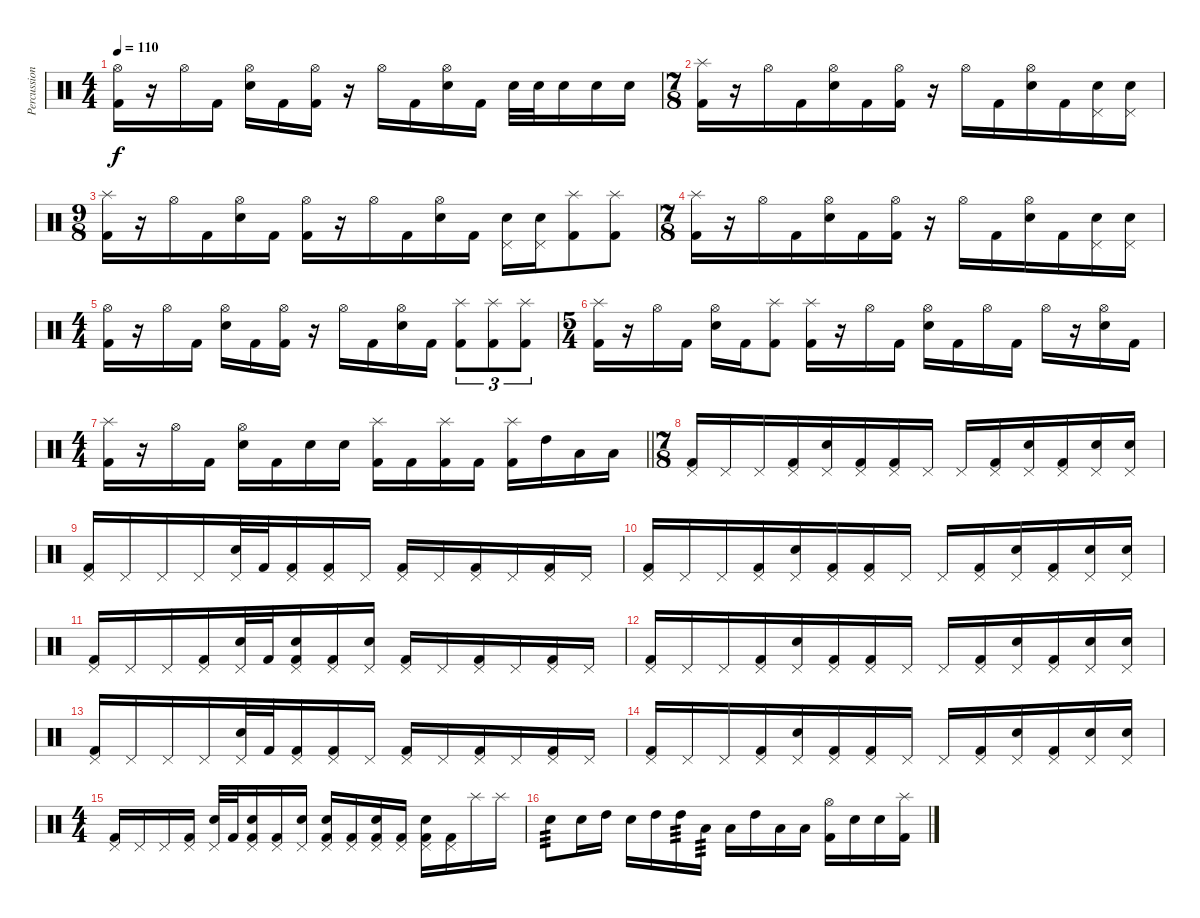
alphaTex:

\track ("Percussion" "Percussion") {instrument percussion}
\staff {score}
\articulation defaults
\ts (4 4)
\tempo 110
\clef neutral
\ks c
("Hi-Hat (open)" "Kick (hit) 2").16{dy f} r.16 "Hi-Hat (open)".16 "Kick (hit) 2".16 ("Hi-Hat (open)" "Electric Snare (hit)").16 "Kick (hit) 2".16 ("Hi-Hat (open)" "Kick (hit) 2").16 r.16 "Hi-Hat (open)".16 "Kick (hit) 2".16 ("Hi-Hat (open)" "Electric Snare (hit)").16 "Kick (hit) 2".16 "Electric Snare (hit)".32 "Electric Snare (hit)".32 "Electric Snare (hit)".16 "Electric Snare (hit)".16 "Electric Snare (hit)".16 |
\ts (7 8)
("Splash (hit)" "Kick (hit) 2").16 r.16 "Hi-Hat (open)".16 "Kick (hit) 2".16 ("Hi-Hat (open)" "Electric Snare (hit)").16 "Kick (hit) 2".16 ("Hi-Hat (open)" "Kick (hit) 2").16 r.16 "Hi-Hat (open)".16 "Kick (hit) 2".16 ("Hi-Hat (open)" "Electric Snare (hit)").16 "Kick (hit) 2".16 ("Pedal Hi-Hat (hit)" "Electric Snare (hit)").16 ("Pedal Hi-Hat (hit)" "Electric Snare (hit)").16 |
\ts (9 8)
("Splash (hit)" "Kick (hit) 2").16 r.16 "Hi-Hat (open)".16 "Kick (hit) 2".16 ("Hi-Hat (open)" "Electric Snare (hit)").16 "Kick (hit) 2".16 ("Hi-Hat (open)" "Kick (hit) 2").16 r.16 "Hi-Hat (open)".16 "Kick (hit) 2".16 ("Hi-Hat (open)" "Electric Snare (hit)").16 "Kick (hit) 2".16 ("Pedal Hi-Hat (hit)" "Electric Snare (hit)").16 ("Pedal Hi-Hat (hit)" "Electric Snare (hit)").16 ("Splash (hit)" "Kick (hit) 2").8 ("Splash (hit)" "Kick (hit) 2").8 |
\ts (7 8)
("Splash (hit)" "Kick (hit) 2").16 r.16 "Hi-Hat (open)".16 "Kick (hit) 2".16 ("Hi-Hat (open)" "Electric Snare (hit)").16 "Kick (hit) 2".16 ("Hi-Hat (open)" "Kick (hit) 2").16 r.16 "Hi-Hat (open)".16 "Kick (hit) 2".16 ("Hi-Hat (open)" "Electric Snare (hit)").16 "Kick (hit) 2".16 ("Pedal Hi-Hat (hit)" "Electric Snare (hit)").16 ("Pedal Hi-Hat (hit)" "Electric Snare (hit)").16 |
\ts (4 4)
("Hi-Hat (open)" "Kick (hit) 2").16 r.16 "Hi-Hat (open)".16 "Kick (hit) 2".16 ("Hi-Hat (open)" "Electric Snare (hit)").16 "Kick (hit) 2".16 ("Hi-Hat (open)" "Kick (hit) 2").16 r.16 "Hi-Hat (open)".16 "Kick (hit) 2".16 ("Hi-Hat (open)" "Electric Snare (hit)").16 "Kick (hit) 2".16 ("Splash (hit)" "Kick (hit) 2").8{tu (3 2)} ("Splash (hit)" "Kick (hit) 2").8{tu (3 2)} ("Splash (hit)" "Kick (hit) 2").8{tu (3 2)} |
\ts (5 4)
("Splash (hit)" "Kick (hit) 2").16 r.16 "Hi-Hat (open)".16 "Kick (hit) 2".16 ("Hi-Hat (open)" "Electric Snare (hit)").16 "Kick (hit) 2".16 ("Splash (hit)" "Kick (hit) 2").8 ("Splash (hit)" "Kick (hit) 2").16 r.16 "Hi-Hat (open)".16 "Kick (hit) 2".16 ("Hi-Hat (open)" "Electric Snare (hit)").16 "Kick (hit) 2".16 "Hi-Hat (open)".16 "Kick (hit) 2".16 "Hi-Hat (open)".16 r.16 ("Hi-Hat (open)" "Electric Snare (hit)").16 "Kick (hit) 2".16 |
\ts (4 4)
\barLineRight lightlight
("Splash (hit)" "Kick (hit) 2").16 r.16 "Hi-Hat (open)".16 "Kick (hit) 2".16 ("Hi-Hat (open)" "Electric Snare (hit)").16 "Kick (hit) 2".16 "Electric Snare (hit)".16 "Electric Snare (hit)".16 ("Splash (hit)" "Kick (hit) 2").16 "Kick (hit) 2".16 ("Splash (hit)" "Kick (hit) 2").16 "Kick (hit) 2".16 ("Splash (hit)" "Kick (hit) 2").16 "High Tom (hit)".16 "Low Tom (hit)".16 "Low Floor Tom (hit)".16 |
\ts (7 8)
("Pedal Hi-Hat (hit)" "Kick (hit) 2").16 "Pedal Hi-Hat (hit)".16 "Pedal Hi-Hat (hit)".16 ("Pedal Hi-Hat (hit)" "Kick (hit) 2").16 ("Pedal Hi-Hat (hit)" "Electric Snare (hit)").16 ("Pedal Hi-Hat (hit)" "Kick (hit) 2").16 ("Pedal Hi-Hat (hit)" "Kick (hit) 2").16 "Pedal Hi-Hat (hit)".16 "Pedal Hi-Hat (hit)".16 ("Pedal Hi-Hat (hit)" "Kick (hit) 2").16 ("Pedal Hi-Hat (hit)" "Electric Snare (hit)").16 ("Pedal Hi-Hat (hit)" "Kick (hit) 2").16 ("Pedal Hi-Hat (hit)" "Electric Snare (hit)").16 ("Pedal Hi-Hat (hit)" "Electric Snare (hit)").16 |
("Pedal Hi-Hat (hit)" "Kick (hit) 2").16 "Pedal Hi-Hat (hit)".16 "Pedal Hi-Hat (hit)".16 "Pedal Hi-Hat (hit)".16 ("Pedal Hi-Hat (hit)" "Electric Snare (hit)").32 "Kick (hit) 2".32 ("Pedal Hi-Hat (hit)" "Kick (hit) 2").16 ("Pedal Hi-Hat (hit)" "Kick (hit) 2").16 "Pedal Hi-Hat (hit)".16 ("Pedal Hi-Hat (hit)" "Kick (hit) 2").16 "Pedal Hi-Hat (hit)".16 ("Pedal Hi-Hat (hit)" "Kick (hit) 2").16 "Pedal Hi-Hat (hit)".16 ("Pedal Hi-Hat (hit)" "Kick (hit) 2").16 "Pedal Hi-Hat (hit)".16 |
("Pedal Hi-Hat (hit)" "Kick (hit) 2").16 "Pedal Hi-Hat (hit)".16 "Pedal Hi-Hat (hit)".16 ("Pedal Hi-Hat (hit)" "Kick (hit) 2").16 ("Pedal Hi-Hat (hit)" "Electric Snare (hit)").16 ("Pedal Hi-Hat (hit)" "Kick (hit) 2").16 ("Pedal Hi-Hat (hit)" "Kick (hit) 2").16 "Pedal Hi-Hat (hit)".16 "Pedal Hi-Hat (hit)".16 ("Pedal Hi-Hat (hit)" "Kick (hit) 2").16 ("Pedal Hi-Hat (hit)" "Electric Snare (hit)").16 ("Pedal Hi-Hat (hit)" "Kick (hit) 2").16 ("Pedal Hi-Hat (hit)" "Electric Snare (hit)").16 ("Pedal Hi-Hat (hit)" "Electric Snare (hit)").16 |
("Pedal Hi-Hat (hit)" "Kick (hit) 2").16 "Pedal Hi-Hat (hit)".16 "Pedal Hi-Hat (hit)".16 ("Pedal Hi-Hat (hit)" "Kick (hit) 2").16 ("Pedal Hi-Hat (hit)" "Electric Snare (hit)").32 "Kick (hit) 2".32 ("Pedal Hi-Hat (hit)" "Electric Snare (hit)" "Kick (hit) 2").16 ("Pedal Hi-Hat (hit)" "Kick (hit) 2").16 ("Pedal Hi-Hat (hit)" "Electric Snare (hit)").16 ("Pedal Hi-Hat (hit)" "Kick (hit) 2").16 "Pedal Hi-Hat (hit)".16 ("Pedal Hi-Hat (hit)" "Kick (hit) 2").16 "Pedal Hi-Hat (hit)".16 ("Pedal Hi-Hat (hit)" "Kick (hit) 2").16 "Pedal Hi-Hat (hit)".16 |
("Pedal Hi-Hat (hit)" "Kick (hit) 2").16 "Pedal Hi-Hat (hit)".16 "Pedal Hi-Hat (hit)".16 ("Pedal Hi-Hat (hit)" "Kick (hit) 2").16 ("Pedal Hi-Hat (hit)" "Electric Snare (hit)").16 ("Pedal Hi-Hat (hit)" "Kick (hit) 2").16 ("Pedal Hi-Hat (hit)" "Kick (hit) 2").16 "Pedal Hi-Hat (hit)".16 "Pedal Hi-Hat (hit)".16 ("Pedal Hi-Hat (hit)" "Kick (hit) 2").16 ("Pedal Hi-Hat (hit)" "Electric Snare (hit)").16 ("Pedal Hi-Hat (hit)" "Kick (hit) 2").16 ("Pedal Hi-Hat (hit)" "Electric Snare (hit)").16 ("Pedal Hi-Hat (hit)" "Electric Snare (hit)").16 |
("Pedal Hi-Hat (hit)" "Kick (hit) 2").16 "Pedal Hi-Hat (hit)".16 "Pedal Hi-Hat (hit)".16 "Pedal Hi-Hat (hit)".16 ("Pedal Hi-Hat (hit)" "Electric Snare (hit)").32 "Kick (hit) 2".32 ("Pedal Hi-Hat (hit)" "Kick (hit) 2").16 ("Pedal Hi-Hat (hit)" "Kick (hit) 2").16 "Pedal Hi-Hat (hit)".16 ("Pedal Hi-Hat (hit)" "Kick (hit) 2").16 "Pedal Hi-Hat (hit)".16 ("Pedal Hi-Hat (hit)" "Kick (hit) 2").16 "Pedal Hi-Hat (hit)".16 ("Pedal Hi-Hat (hit)" "Kick (hit) 2").16 "Pedal Hi-Hat (hit)".16 |
("Pedal Hi-Hat (hit)" "Kick (hit) 2").16 "Pedal Hi-Hat (hit)".16 "Pedal Hi-Hat (hit)".16 ("Pedal Hi-Hat (hit)" "Kick (hit) 2").16 ("Pedal Hi-Hat (hit)" "Electric Snare (hit)").16 ("Pedal Hi-Hat (hit)" "Kick (hit) 2").16 ("Pedal Hi-Hat (hit)" "Kick (hit) 2").16 "Pedal Hi-Hat (hit)".16 "Pedal Hi-Hat (hit)".16 ("Pedal Hi-Hat (hit)" "Kick (hit) 2").16 ("Pedal Hi-Hat (hit)" "Electric Snare (hit)").16 ("Pedal Hi-Hat (hit)" "Kick (hit) 2").16 ("Pedal Hi-Hat (hit)" "Electric Snare (hit)").16 ("Pedal Hi-Hat (hit)" "Electric Snare (hit)").16 |
\ts (4 4)
("Pedal Hi-Hat (hit)" "Kick (hit) 2").16 "Pedal Hi-Hat (hit)".16 "Pedal Hi-Hat (hit)".16 ("Pedal Hi-Hat (hit)" "Kick (hit) 2").16 ("Pedal Hi-Hat (hit)" "Electric Snare (hit)").32 "Kick (hit) 2".32 ("Pedal Hi-Hat (hit)" "Electric Snare (hit)" "Kick (hit) 2").16 ("Pedal Hi-Hat (hit)" "Kick (hit) 2").16 ("Pedal Hi-Hat (hit)" "Electric Snare (hit)").16 ("Pedal Hi-Hat (hit)" "Electric Snare (hit)" "Kick (hit) 2").16 ("Pedal Hi-Hat (hit)" "Kick (hit) 2").16 ("Pedal Hi-Hat (hit)" "Electric Snare (hit)" "Kick (hit) 2").16 ("Pedal Hi-Hat (hit)" "Kick (hit) 2").16 ("Pedal Hi-Hat (hit)" "Electric Snare (hit)" "Kick (hit) 2").16 ("Pedal Hi-Hat (hit)" "Kick (hit) 2").16 "Splash (hit)".16 "Splash (hit)".16 |
"Electric Snare (hit)".8{tp 3} "Electric Snare (hit)".16 "High Tom (hit)".16 "Electric Snare (hit)".16 "High Tom (hit)".16 "High Tom (hit)".16{tp 3} "Low Tom (hit)".16{tp 3} "Low Floor Tom (hit)".16 "High Tom (hit)".16 "Low Tom (hit)".16 "Low Floor Tom (hit)".16 ("Hi-Hat (open)" "Kick (hit) 2").16 "Electric Snare (hit)".16 "Electric Snare (hit)".16 ("Splash (hit)" "Kick (hit) 2").16
